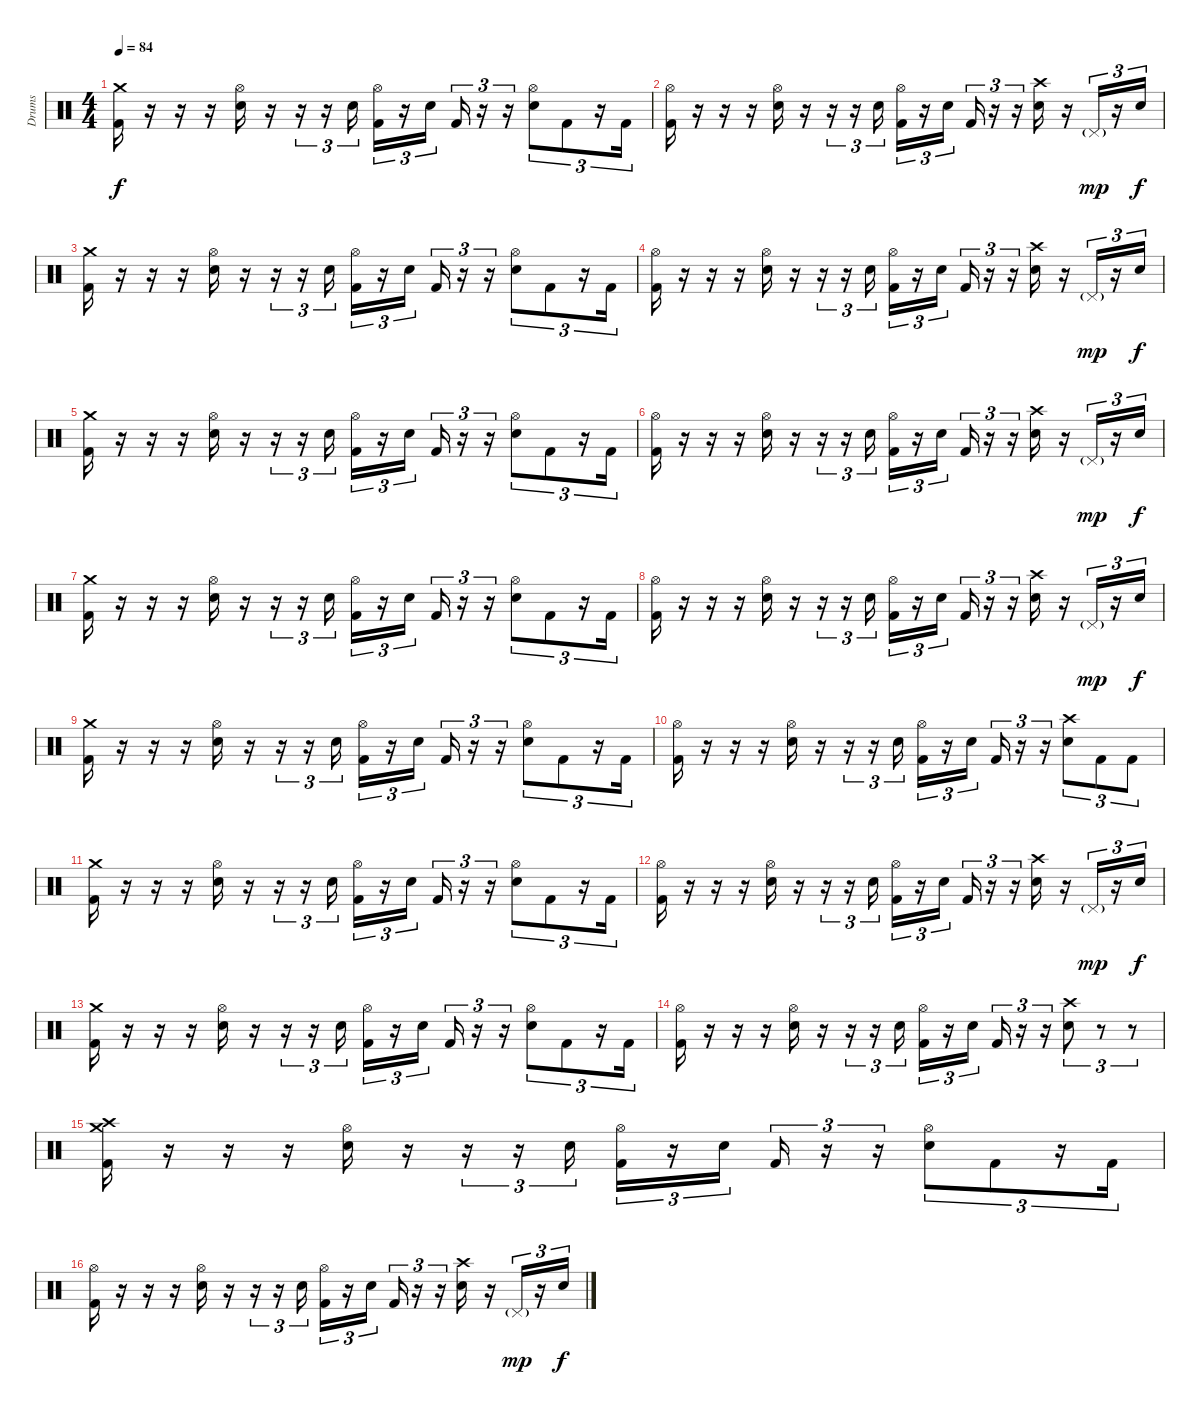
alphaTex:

\track ("Drums" "Drums") {instrument percussion}
\staff {score}
\articulation defaults
\ts (4 4)
\tempo 84
\clef neutral
\ks c
("Crash medium (hit)" "Kick (hit) 2").16{dy f} r.16 r.16 r.16 ("Hi-Hat (open)" "Electric Snare (hit)").16 r.16 r.16{tu (3 2)} r.16{tu (3 2)} "Electric Snare (hit)".16{tu (3 2)} ("Hi-Hat (open)" "Kick (hit) 2").16{tu (3 2)} r.16{tu (3 2)} "Electric Snare (hit)".16{tu (3 2)} "Kick (hit) 2".16{tu (3 2)} r.16{tu (3 2)} r.16{tu (3 2)} ("Hi-Hat (open)" "Electric Snare (hit)").8{tu (3 2)} "Kick (hit) 2".8{tu (3 2)} r.16{tu (3 2)} "Kick (hit) 2".16{tu (3 2)} |
("Hi-Hat (open)" "Kick (hit) 2").16 r.16 r.16 r.16 ("Hi-Hat (open)" "Electric Snare (hit)").16 r.16 r.16{tu (3 2)} r.16{tu (3 2)} "Electric Snare (hit)".16{tu (3 2)} ("Hi-Hat (open)" "Kick (hit) 2").16{tu (3 2)} r.16{tu (3 2)} "Electric Snare (hit)".16{tu (3 2)} "Kick (hit) 2".16{tu (3 2)} r.16{tu (3 2)} r.16{tu (3 2)} ("Crash high (hit)" "Electric Snare (hit)").16 r.16 "Pedal Hi-Hat (hit)"{g}.16{tu (3 2) dy mp} r.16{tu (3 2)} "Electric Snare (hit)".16{tu (3 2) dy f} |
("Crash medium (hit)" "Kick (hit) 2").16 r.16 r.16 r.16 ("Hi-Hat (open)" "Electric Snare (hit)").16 r.16 r.16{tu (3 2)} r.16{tu (3 2)} "Electric Snare (hit)".16{tu (3 2)} ("Hi-Hat (open)" "Kick (hit) 2").16{tu (3 2)} r.16{tu (3 2)} "Electric Snare (hit)".16{tu (3 2)} "Kick (hit) 2".16{tu (3 2)} r.16{tu (3 2)} r.16{tu (3 2)} ("Hi-Hat (open)" "Electric Snare (hit)").8{tu (3 2)} "Kick (hit) 2".8{tu (3 2)} r.16{tu (3 2)} "Kick (hit) 2".16{tu (3 2)} |
("Hi-Hat (open)" "Kick (hit) 2").16 r.16 r.16 r.16 ("Hi-Hat (open)" "Electric Snare (hit)").16 r.16 r.16{tu (3 2)} r.16{tu (3 2)} "Electric Snare (hit)".16{tu (3 2)} ("Hi-Hat (open)" "Kick (hit) 2").16{tu (3 2)} r.16{tu (3 2)} "Electric Snare (hit)".16{tu (3 2)} "Kick (hit) 2".16{tu (3 2)} r.16{tu (3 2)} r.16{tu (3 2)} ("Crash high (hit)" "Electric Snare (hit)").16 r.16 "Pedal Hi-Hat (hit)"{g}.16{tu (3 2) dy mp} r.16{tu (3 2)} "Electric Snare (hit)".16{tu (3 2) dy f} |
("Crash medium (hit)" "Kick (hit) 2").16 r.16 r.16 r.16 ("Hi-Hat (open)" "Electric Snare (hit)").16 r.16 r.16{tu (3 2)} r.16{tu (3 2)} "Electric Snare (hit)".16{tu (3 2)} ("Hi-Hat (open)" "Kick (hit) 2").16{tu (3 2)} r.16{tu (3 2)} "Electric Snare (hit)".16{tu (3 2)} "Kick (hit) 2".16{tu (3 2)} r.16{tu (3 2)} r.16{tu (3 2)} ("Hi-Hat (open)" "Electric Snare (hit)").8{tu (3 2)} "Kick (hit) 2".8{tu (3 2)} r.16{tu (3 2)} "Kick (hit) 2".16{tu (3 2)} |
("Hi-Hat (open)" "Kick (hit) 2").16 r.16 r.16 r.16 ("Hi-Hat (open)" "Electric Snare (hit)").16 r.16 r.16{tu (3 2)} r.16{tu (3 2)} "Electric Snare (hit)".16{tu (3 2)} ("Hi-Hat (open)" "Kick (hit) 2").16{tu (3 2)} r.16{tu (3 2)} "Electric Snare (hit)".16{tu (3 2)} "Kick (hit) 2".16{tu (3 2)} r.16{tu (3 2)} r.16{tu (3 2)} ("Crash high (hit)" "Electric Snare (hit)").16 r.16 "Pedal Hi-Hat (hit)"{g}.16{tu (3 2) dy mp} r.16{tu (3 2)} "Electric Snare (hit)".16{tu (3 2) dy f} |
("Crash medium (hit)" "Kick (hit) 2").16 r.16 r.16 r.16 ("Hi-Hat (open)" "Electric Snare (hit)").16 r.16 r.16{tu (3 2)} r.16{tu (3 2)} "Electric Snare (hit)".16{tu (3 2)} ("Hi-Hat (open)" "Kick (hit) 2").16{tu (3 2)} r.16{tu (3 2)} "Electric Snare (hit)".16{tu (3 2)} "Kick (hit) 2".16{tu (3 2)} r.16{tu (3 2)} r.16{tu (3 2)} ("Hi-Hat (open)" "Electric Snare (hit)").8{tu (3 2)} "Kick (hit) 2".8{tu (3 2)} r.16{tu (3 2)} "Kick (hit) 2".16{tu (3 2)} |
("Hi-Hat (open)" "Kick (hit) 2").16 r.16 r.16 r.16 ("Hi-Hat (open)" "Electric Snare (hit)").16 r.16 r.16{tu (3 2)} r.16{tu (3 2)} "Electric Snare (hit)".16{tu (3 2)} ("Hi-Hat (open)" "Kick (hit) 2").16{tu (3 2)} r.16{tu (3 2)} "Electric Snare (hit)".16{tu (3 2)} "Kick (hit) 2".16{tu (3 2)} r.16{tu (3 2)} r.16{tu (3 2)} ("Crash high (hit)" "Electric Snare (hit)").16 r.16 "Pedal Hi-Hat (hit)"{g}.16{tu (3 2) dy mp} r.16{tu (3 2)} "Electric Snare (hit)".16{tu (3 2) dy f} |
("Crash medium (hit)" "Kick (hit) 2").16 r.16 r.16 r.16 ("Hi-Hat (open)" "Electric Snare (hit)").16 r.16 r.16{tu (3 2)} r.16{tu (3 2)} "Electric Snare (hit)".16{tu (3 2)} ("Hi-Hat (open)" "Kick (hit) 2").16{tu (3 2)} r.16{tu (3 2)} "Electric Snare (hit)".16{tu (3 2)} "Kick (hit) 2".16{tu (3 2)} r.16{tu (3 2)} r.16{tu (3 2)} ("Hi-Hat (open)" "Electric Snare (hit)").8{tu (3 2)} "Kick (hit) 2".8{tu (3 2)} r.16{tu (3 2)} "Kick (hit) 2".16{tu (3 2)} |
("Hi-Hat (open)" "Kick (hit) 2").16 r.16 r.16 r.16 ("Hi-Hat (open)" "Electric Snare (hit)").16 r.16 r.16{tu (3 2)} r.16{tu (3 2)} "Electric Snare (hit)".16{tu (3 2)} ("Hi-Hat (open)" "Kick (hit) 2").16{tu (3 2)} r.16{tu (3 2)} "Electric Snare (hit)".16{tu (3 2)} "Kick (hit) 2".16{tu (3 2)} r.16{tu (3 2)} r.16{tu (3 2)} ("Crash high (hit)" "Electric Snare (hit)").8{tu (3 2)} "Kick (hit) 2".8{tu (3 2)} "Kick (hit) 2".8{tu (3 2)} |
("Crash medium (hit)" "Kick (hit) 2").16 r.16 r.16 r.16 ("Hi-Hat (open)" "Electric Snare (hit)").16 r.16 r.16{tu (3 2)} r.16{tu (3 2)} "Electric Snare (hit)".16{tu (3 2)} ("Hi-Hat (open)" "Kick (hit) 2").16{tu (3 2)} r.16{tu (3 2)} "Electric Snare (hit)".16{tu (3 2)} "Kick (hit) 2".16{tu (3 2)} r.16{tu (3 2)} r.16{tu (3 2)} ("Hi-Hat (open)" "Electric Snare (hit)").8{tu (3 2)} "Kick (hit) 2".8{tu (3 2)} r.16{tu (3 2)} "Kick (hit) 2".16{tu (3 2)} |
("Hi-Hat (open)" "Kick (hit) 2").16 r.16 r.16 r.16 ("Hi-Hat (open)" "Electric Snare (hit)").16 r.16 r.16{tu (3 2)} r.16{tu (3 2)} "Electric Snare (hit)".16{tu (3 2)} ("Hi-Hat (open)" "Kick (hit) 2").16{tu (3 2)} r.16{tu (3 2)} "Electric Snare (hit)".16{tu (3 2)} "Kick (hit) 2".16{tu (3 2)} r.16{tu (3 2)} r.16{tu (3 2)} ("Crash high (hit)" "Electric Snare (hit)").16 r.16 "Pedal Hi-Hat (hit)"{g}.16{tu (3 2) dy mp} r.16{tu (3 2)} "Electric Snare (hit)".16{tu (3 2) dy f} |
("Crash medium (hit)" "Kick (hit) 2").16 r.16 r.16 r.16 ("Hi-Hat (open)" "Electric Snare (hit)").16 r.16 r.16{tu (3 2)} r.16{tu (3 2)} "Electric Snare (hit)".16{tu (3 2)} ("Hi-Hat (open)" "Kick (hit) 2").16{tu (3 2)} r.16{tu (3 2)} "Electric Snare (hit)".16{tu (3 2)} "Kick (hit) 2".16{tu (3 2)} r.16{tu (3 2)} r.16{tu (3 2)} ("Hi-Hat (open)" "Electric Snare (hit)").8{tu (3 2)} "Kick (hit) 2".8{tu (3 2)} r.16{tu (3 2)} "Kick (hit) 2".16{tu (3 2)} |
("Hi-Hat (open)" "Kick (hit) 2").16 r.16 r.16 r.16 ("Hi-Hat (open)" "Electric Snare (hit)").16 r.16 r.16{tu (3 2)} r.16{tu (3 2)} "Electric Snare (hit)".16{tu (3 2)} ("Hi-Hat (open)" "Kick (hit) 2").16{tu (3 2)} r.16{tu (3 2)} "Electric Snare (hit)".16{tu (3 2)} "Kick (hit) 2".16{tu (3 2)} r.16{tu (3 2)} r.16{tu (3 2)} ("Crash high (hit)" "Electric Snare (hit)").8{tu (3 2)} r.8{tu (3 2)} r.8{tu (3 2)} |
("Crash medium (hit)" "Crash high (hit)" "Kick (hit) 2").16 r.16 r.16 r.16 ("Hi-Hat (open)" "Electric Snare (hit)").16 r.16 r.16{tu (3 2)} r.16{tu (3 2)} "Electric Snare (hit)".16{tu (3 2)} ("Hi-Hat (open)" "Kick (hit) 2").16{tu (3 2)} r.16{tu (3 2)} "Electric Snare (hit)".16{tu (3 2)} "Kick (hit) 2".16{tu (3 2)} r.16{tu (3 2)} r.16{tu (3 2)} ("Hi-Hat (open)" "Electric Snare (hit)").8{tu (3 2)} "Kick (hit) 2".8{tu (3 2)} r.16{tu (3 2)} "Kick (hit) 2".16{tu (3 2)} |
("Hi-Hat (open)" "Kick (hit) 2").16 r.16 r.16 r.16 ("Hi-Hat (open)" "Electric Snare (hit)").16 r.16 r.16{tu (3 2)} r.16{tu (3 2)} "Electric Snare (hit)".16{tu (3 2)} ("Hi-Hat (open)" "Kick (hit) 2").16{tu (3 2)} r.16{tu (3 2)} "Electric Snare (hit)".16{tu (3 2)} "Kick (hit) 2".16{tu (3 2)} r.16{tu (3 2)} r.16{tu (3 2)} ("Crash high (hit)" "Electric Snare (hit)").16 r.16 "Pedal Hi-Hat (hit)"{g}.16{tu (3 2) dy mp} r.16{tu (3 2)} "Electric Snare (hit)".16{tu (3 2) dy f}
